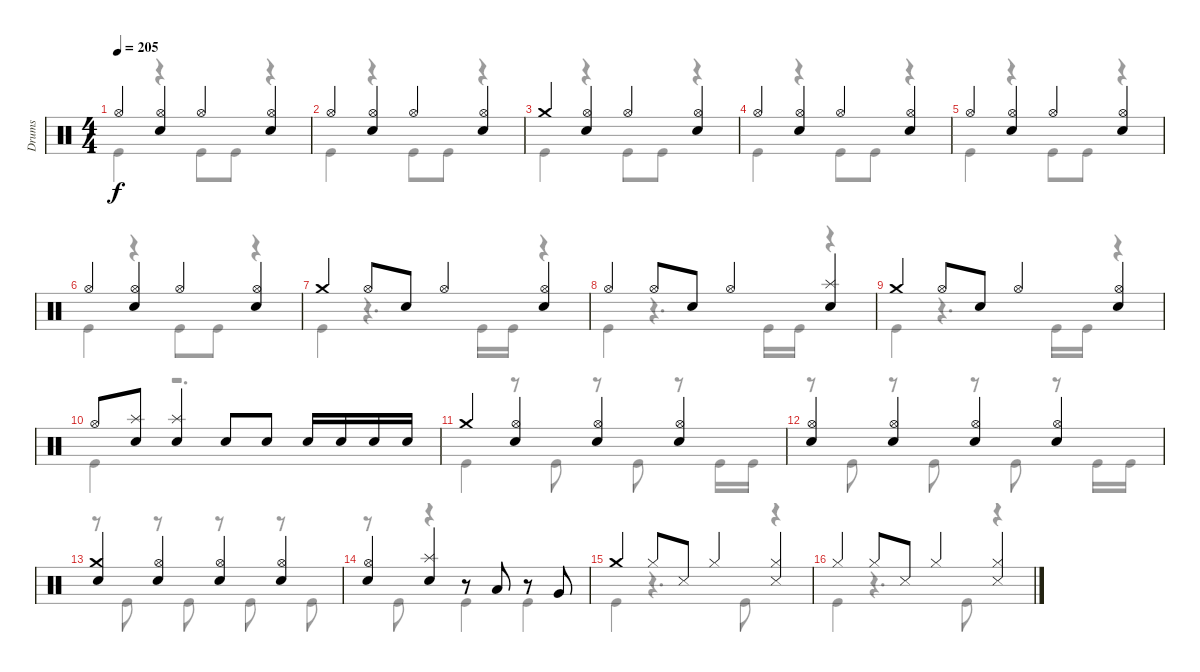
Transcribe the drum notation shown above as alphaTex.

\track ("Drums" "Drums") {instrument percussion}
\staff {score}
\articulation defaults
\voice
\ts (4 4)
\tempo 205
\clef neutral
\ks c "Hi-Hat (open)".4{dy f}
("Hi-Hat (open)" "Snare (hit) 2").4 "Hi-Hat (open)".4 ("Hi-Hat (open)" "Snare (hit) 2").4 |
"Hi-Hat (open)".4 ("Hi-Hat (open)" "Snare (hit) 2").4 "Hi-Hat (open)".4 ("Hi-Hat (open)" "Snare (hit) 2").4 |
"Crash medium (hit)".4 ("Hi-Hat (open)" "Snare (hit) 2").4 "Hi-Hat (open)".4 ("Hi-Hat (open)" "Snare (hit) 2").4 |
"Hi-Hat (open)".4 ("Hi-Hat (open)" "Snare (hit) 2").4 "Hi-Hat (open)".4 ("Hi-Hat (open)" "Snare (hit) 2").4 |
"Hi-Hat (open)".4 ("Hi-Hat (open)" "Snare (hit) 2").4 "Hi-Hat (open)".4 ("Hi-Hat (open)" "Snare (hit) 2").4 |
"Hi-Hat (open)".4 ("Hi-Hat (open)" "Snare (hit) 2").4 "Hi-Hat (open)".4 ("Hi-Hat (open)" "Snare (hit) 2").4 |
"Crash medium (hit)".4 "Hi-Hat (open)".8 "Snare (hit) 2".8 "Hi-Hat (open)".4 ("Hi-Hat (open)" "Snare (hit) 2").4 |
"Hi-Hat (open)".4 "Hi-Hat (open)".8 "Snare (hit) 2".8 "Hi-Hat (open)".4 ("Splash (hit)" "Snare (hit) 2").4 |
"Crash medium (hit)".4 "Hi-Hat (open)".8 "Snare (hit) 2".8 "Hi-Hat (open)".4 ("Hi-Hat (open)" "Snare (hit) 2").4 |
"Hi-Hat (open)".8 ("Splash (hit)" "Snare (hit) 2").8 ("Splash (hit)" "Snare (hit) 2").4 "Snare (hit) 2".8 "Snare (hit) 2".8 "Snare (hit) 2".16 "Snare (hit) 2".16 "Snare (hit) 2".16 "Snare (hit) 2".16 |
"Crash medium (hit)".4 ("Hi-Hat (open)" "Snare (hit) 2").4 ("Hi-Hat (open)" "Snare (hit) 2").4 ("Hi-Hat (open)" "Snare (hit) 2").4 |
("Hi-Hat (open)" "Snare (hit) 2").4 ("Hi-Hat (open)" "Snare (hit) 2").4 ("Hi-Hat (open)" "Snare (hit) 2").4 ("Hi-Hat (open)" "Snare (hit) 2").4 |
("Crash medium (hit)" "Snare (hit) 2").4 ("Hi-Hat (open)" "Snare (hit) 2").4 ("Hi-Hat (open)" "Snare (hit) 2").4 ("Hi-Hat (open)" "Snare (hit) 2").4 |
("Hi-Hat (open)" "Snare (hit) 2").4 ("Splash (hit)" "Snare (hit) 2").4 r.8 "Low Tom (hit)".8 r.8 "Very Low Tom (hit)".8 |
"Crash medium (hit)".4 "Hi-Hat (closed)".8 "Snare (side stick) 3".8 "Hi-Hat (closed)".4 ("Hi-Hat (closed)" "Snare (side stick) 3").4 |
"Hi-Hat (closed)".4 "Hi-Hat (closed)".8 "Snare (side stick) 3".8 "Hi-Hat (closed)".4 ("Hi-Hat (closed)" "Snare (side stick) 3").4
\voice
\clef neutral
\ottava regular
\simile none
\ks c "Kick (hit)".4{dy f}
r.4 "Kick (hit)".8 "Kick (hit)".8 r.4 |
"Kick (hit)".4 r.4 "Kick (hit)".8 "Kick (hit)".8 r.4 |
"Kick (hit)".4 r.4 "Kick (hit)".8 "Kick (hit)".8 r.4 |
"Kick (hit)".4 r.4 "Kick (hit)".8 "Kick (hit)".8 r.4 |
"Kick (hit)".4 r.4 "Kick (hit)".8 "Kick (hit)".8 r.4 |
"Kick (hit)".4 r.4 "Kick (hit)".8 "Kick (hit)".8 r.4 |
"Kick (hit)".4 r.4{d} "Kick (hit)".16 "Kick (hit)".16 r.4 |
"Kick (hit)".4 r.4{d} "Kick (hit)".16 "Kick (hit)".16 r.4 |
"Kick (hit)".4 r.4{d} "Kick (hit)".16 "Kick (hit)".16 r.4 |
"Kick (hit)".4 r.2{d} |
"Kick (hit)".4 r.8 "Kick (hit)".8 r.8 "Kick (hit)".8 r.8 "Kick (hit)".16 "Kick (hit)".16 |
r.8 "Kick (hit)".8 r.8 "Kick (hit)".8 r.8 "Kick (hit)".8 r.8 "Kick (hit)".16 "Kick (hit)".16 |
r.8 "Kick (hit)".8 r.8 "Kick (hit)".8 r.8 "Kick (hit)".8 r.8 "Kick (hit)".8 |
r.8 "Kick (hit)".8 r.4 "Kick (hit)".4 "Kick (hit)".4 |
"Kick (hit)".4 r.4{d} "Kick (hit)".8 r.4 |
"Kick (hit)".4 r.4{d} "Kick (hit)".8 r.4
